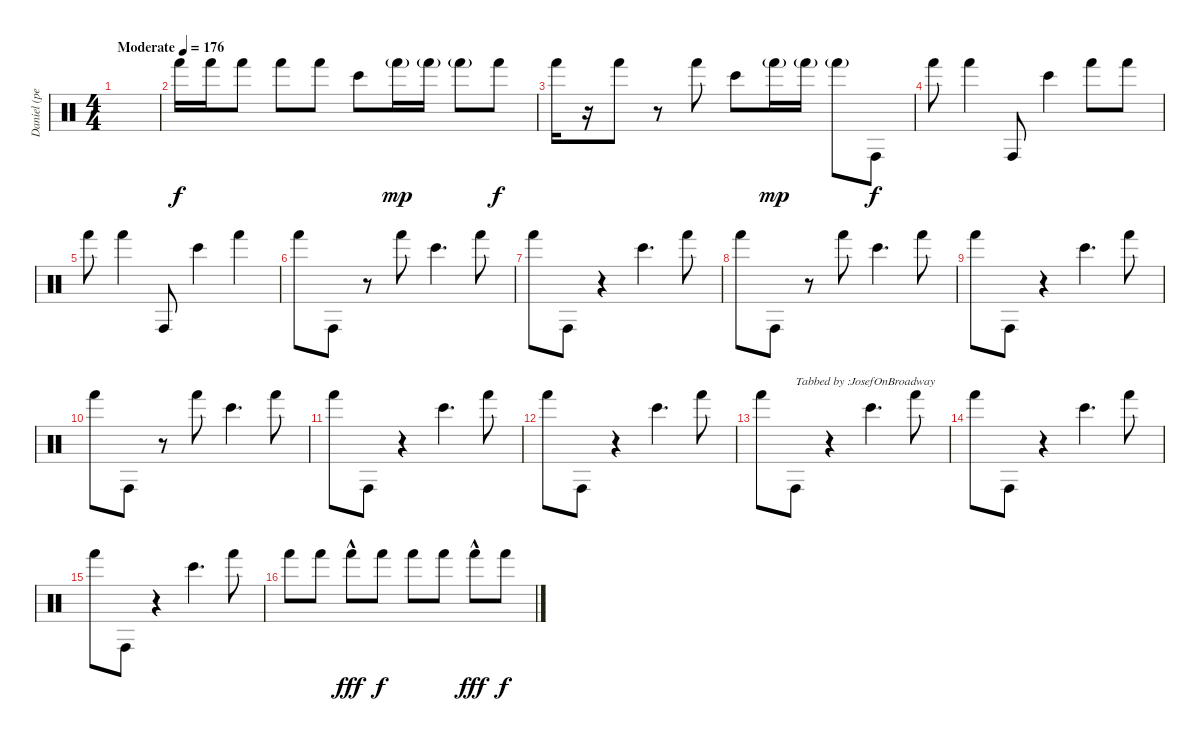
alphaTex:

\track ("Daniel (percussion)" "Daniel (pe") {instrument percussion}
\staff {score}
\articulation defaults
\ts (4 4)
\tempo (176 "Moderate")
\clef neutral
\ks c
|
"Hand (hit)".16 "Hand (hit)".16 "Hand (hit)".8 "Hand (hit)".8 "Hand (hit)".8 "Bongo High (hit)".8 "Hand (hit)"{g}.16{dy mp} "Hand (hit)"{g}.16 "Hand (hit)"{g}.8 "Hand (hit)".8{dy f} |
"Hand (hit)".16 r.16 "Hand (hit)".8 r.8 "Hand (hit)".8 "Bongo High (hit)".8 "Hand (hit)"{g}.16{dy mp} "Hand (hit)"{g}.16 "Hand (hit)"{g}.8 "Conga high (hit)".8{dy f} |
"Hand (hit)".8 "Hand (hit)".4 "Conga high (hit)".8 "Bongo High (hit)".4 "Hand (hit)".8 "Hand (hit)".8 |
"Hand (hit)".8 "Hand (hit)".4 "Conga high (hit)".8 "Bongo High (hit)".4 "Hand (hit)".4 |
"Hand (hit)".8 "Conga high (hit)".8 r.8 "Hand (hit)".8 "Bongo High (hit)".4{d} "Hand (hit)".8 |
"Hand (hit)".8 "Conga high (hit)".8 r.4 "Bongo High (hit)".4{d} "Hand (hit)".8 |
"Hand (hit)".8 "Conga high (hit)".8 r.8 "Hand (hit)".8 "Bongo High (hit)".4{d} "Hand (hit)".8 |
"Hand (hit)".8 "Conga high (hit)".8 r.4 "Bongo High (hit)".4{d} "Hand (hit)".8 |
"Hand (hit)".8 "Conga high (hit)".8 r.8 "Hand (hit)".8 "Bongo High (hit)".4{d} "Hand (hit)".8 |
"Hand (hit)".8 "Conga high (hit)".8 r.4 "Bongo High (hit)".4{d} "Hand (hit)".8 |
"Hand (hit)".8 "Conga high (hit)".8 r.4 "Bongo High (hit)".4{d} "Hand (hit)".8 |
"Hand (hit)".8 "Conga high (hit)".8{txt "Tabbed by :JosefOnBroadway"} r.4 "Bongo High (hit)".4{d} "Hand (hit)".8 |
"Hand (hit)".8 "Conga high (hit)".8 r.4 "Bongo High (hit)".4{d} "Hand (hit)".8 |
"Hand (hit)".8 "Conga high (hit)".8 r.4 "Bongo High (hit)".4{d} "Hand (hit)".8 |
"Hand (hit)".8 "Hand (hit)".8 "Hand (hit)"{hac}.8{dy fff} "Hand (hit)".8{dy f} "Hand (hit)".8 "Hand (hit)".8 "Hand (hit)"{hac}.8{dy fff} "Hand (hit)".8{dy f}
